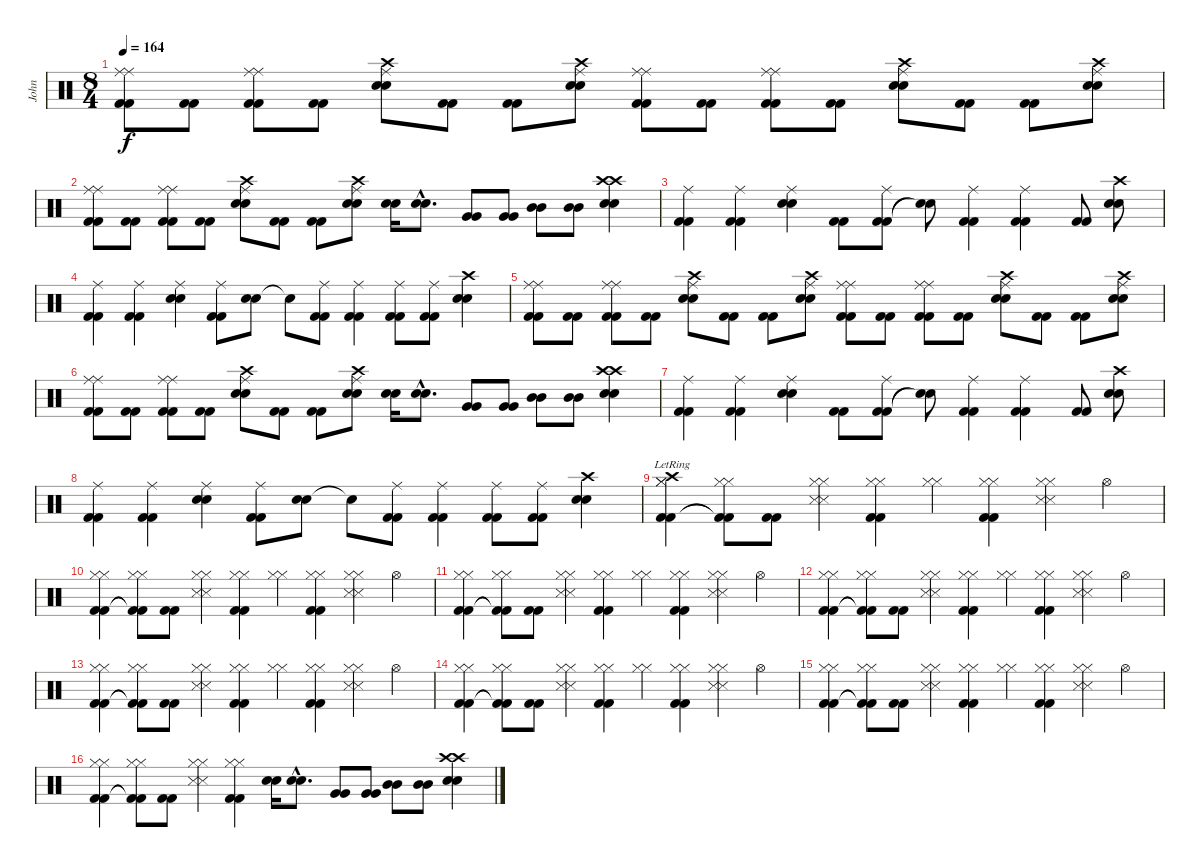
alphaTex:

\track ("John" "John") {instrument percussion}
\staff {score}
\articulation defaults
\ts (8 4)
\tempo 164
\clef neutral
\ks c
("Kick (hit) 2" "Kick (hit) 2" "Ride (middle)" "Ride (middle)").8{dy f} ("Kick (hit) 2" "Kick (hit) 2").8 ("Kick (hit) 2" "Kick (hit) 2" "Ride (middle)" "Ride (middle)").8 ("Kick (hit) 2" "Kick (hit) 2").8 ("Snare (hit) 2" "Snare (hit) 2" "Crash high (hit)" "Ride (middle)").8 ("Kick (hit) 2" "Kick (hit) 2").8 ("Kick (hit) 2" "Kick (hit) 2").8 ("Snare (hit) 2" "Snare (hit) 2" "Crash high (hit)" "Ride (middle)").8 ("Kick (hit) 2" "Kick (hit) 2" "Ride (middle)" "Ride (middle)").8 ("Kick (hit) 2" "Kick (hit) 2").8 ("Kick (hit) 2" "Kick (hit) 2" "Ride (middle)" "Ride (middle)").8 ("Kick (hit) 2" "Kick (hit) 2").8 ("Snare (hit) 2" "Snare (hit) 2" "Crash high (hit)" "Ride (middle)").8 ("Kick (hit) 2" "Kick (hit) 2").8 ("Kick (hit) 2" "Kick (hit) 2").8 ("Snare (hit) 2" "Snare (hit) 2" "Crash high (hit)" "Ride (middle)").8 |
("Kick (hit) 2" "Kick (hit) 2" "Ride (middle)" "Ride (middle)").8 ("Kick (hit) 2" "Kick (hit) 2").8 ("Kick (hit) 2" "Kick (hit) 2" "Ride (middle)" "Ride (middle)").8 ("Kick (hit) 2" "Kick (hit) 2").8 ("Snare (hit) 2" "Snare (hit) 2" "Crash high (hit)" "Ride (middle)").8 ("Kick (hit) 2" "Kick (hit) 2").8 ("Kick (hit) 2" "Kick (hit) 2").8 ("Snare (hit) 2" "Snare (hit) 2" "Crash high (hit)" "Ride (middle)").8 ("Snare (hit) 2" "Snare (hit) 2").16 ("Snare (hit) 2"{hac} "Snare (hit) 2"{hac}).8{d} ("Very Low Tom (hit)" "Very Low Tom (hit)").8 ("Very Low Tom (hit)" "Very Low Tom (hit)").8 ("Mid Tom (hit)" "Mid Tom (hit)").8 ("Mid Tom (hit)" "Mid Tom (hit)").8 ("Snare (hit) 2" "Snare (hit) 2" "Crash high (hit)" "Crash high (hit)").4 |
("Kick (hit) 2" "Kick (hit) 2" "Ride (middle)").4 ("Kick (hit) 2" "Kick (hit) 2" "Ride (middle)").4 ("Snare (hit) 2" "Snare (hit) 2" "Ride (middle)").4 ("Kick (hit) 2" "Kick (hit) 2").8 ("Kick (hit) 2" "Kick (hit) 2" "Ride (middle)").8 ("Snare (hit)"{t} "Snare (hit)"{t}).8 ("Kick (hit) 2" "Kick (hit) 2" "Ride (middle)").4 ("Kick (hit) 2" "Kick (hit) 2" "Ride (middle)").4 ("Kick (hit) 2" "Kick (hit) 2").8 ("Snare (hit) 2" "Snare (hit) 2" "Crash high (hit)").8 |
("Kick (hit) 2" "Kick (hit) 2" "Ride (middle)").4 ("Kick (hit) 2" "Kick (hit) 2" "Ride (middle)").4 ("Snare (hit) 2" "Snare (hit) 2" "Ride (middle)").4 ("Kick (hit) 2" "Kick (hit) 2" "Ride (middle)").8 ("Snare (hit) 2" "Snare (hit) 2").8 "Snare (hit)"{t}.8 ("Kick (hit) 2" "Kick (hit) 2" "Ride (middle)").8 ("Kick (hit) 2" "Kick (hit) 2" "Ride (middle)").4 ("Kick (hit) 2" "Kick (hit) 2" "Ride (middle)").8 ("Kick (hit) 2" "Kick (hit) 2" "Ride (middle)").8 ("Snare (hit) 2" "Snare (hit) 2" "Crash high (hit)").4 |
("Kick (hit) 2" "Kick (hit) 2" "Ride (middle)" "Ride (middle)").8 ("Kick (hit) 2" "Kick (hit) 2").8 ("Kick (hit) 2" "Kick (hit) 2" "Ride (middle)" "Ride (middle)").8 ("Kick (hit) 2" "Kick (hit) 2").8 ("Snare (hit) 2" "Snare (hit) 2" "Crash high (hit)" "Ride (middle)").8 ("Kick (hit) 2" "Kick (hit) 2").8 ("Kick (hit) 2" "Kick (hit) 2").8 ("Snare (hit) 2" "Snare (hit) 2" "Crash high (hit)" "Ride (middle)").8 ("Kick (hit) 2" "Kick (hit) 2" "Ride (middle)" "Ride (middle)").8 ("Kick (hit) 2" "Kick (hit) 2").8 ("Kick (hit) 2" "Kick (hit) 2" "Ride (middle)" "Ride (middle)").8 ("Kick (hit) 2" "Kick (hit) 2").8 ("Snare (hit) 2" "Snare (hit) 2" "Crash high (hit)" "Ride (middle)").8 ("Kick (hit) 2" "Kick (hit) 2").8 ("Kick (hit) 2" "Kick (hit) 2").8 ("Snare (hit) 2" "Snare (hit) 2" "Crash high (hit)" "Ride (middle)").8 |
("Kick (hit) 2" "Kick (hit) 2" "Ride (middle)" "Ride (middle)").8 ("Kick (hit) 2" "Kick (hit) 2").8 ("Kick (hit) 2" "Kick (hit) 2" "Ride (middle)" "Ride (middle)").8 ("Kick (hit) 2" "Kick (hit) 2").8 ("Snare (hit) 2" "Snare (hit) 2" "Crash high (hit)" "Ride (middle)").8 ("Kick (hit) 2" "Kick (hit) 2").8 ("Kick (hit) 2" "Kick (hit) 2").8 ("Snare (hit) 2" "Snare (hit) 2" "Crash high (hit)" "Ride (middle)").8 ("Snare (hit) 2" "Snare (hit) 2").16 ("Snare (hit) 2"{hac} "Snare (hit) 2"{hac}).8{d} ("Very Low Tom (hit)" "Very Low Tom (hit)").8 ("Very Low Tom (hit)" "Very Low Tom (hit)").8 ("Mid Tom (hit)" "Mid Tom (hit)").8 ("Mid Tom (hit)" "Mid Tom (hit)").8 ("Snare (hit) 2" "Snare (hit) 2" "Crash high (hit)" "Crash high (hit)").4 |
("Kick (hit) 2" "Kick (hit) 2" "Ride (middle)").4 ("Kick (hit) 2" "Kick (hit) 2" "Ride (middle)").4 ("Snare (hit) 2" "Snare (hit) 2" "Ride (middle)").4 ("Kick (hit) 2" "Kick (hit) 2").8 ("Kick (hit) 2" "Kick (hit) 2" "Ride (middle)").8 ("Snare (hit)"{t} "Snare (hit)"{t}).8 ("Kick (hit) 2" "Kick (hit) 2" "Ride (middle)").4 ("Kick (hit) 2" "Kick (hit) 2" "Ride (middle)").4 ("Kick (hit) 2" "Kick (hit) 2").8 ("Snare (hit) 2" "Snare (hit) 2" "Crash high (hit)").8 |
("Kick (hit) 2" "Kick (hit) 2" "Ride (middle)").4 ("Kick (hit) 2" "Kick (hit) 2" "Ride (middle)").4 ("Snare (hit) 2" "Snare (hit) 2" "Ride (middle)").4 ("Kick (hit) 2" "Kick (hit) 2" "Ride (middle)").8 ("Snare (hit) 2" "Snare (hit) 2").8 "Snare (hit)"{t}.8 ("Kick (hit) 2" "Kick (hit) 2" "Ride (middle)").8 ("Kick (hit) 2" "Kick (hit) 2" "Ride (middle)").4 ("Kick (hit) 2" "Kick (hit) 2" "Ride (middle)").8 ("Kick (hit) 2" "Kick (hit) 2" "Ride (middle)").8 ("Snare (hit) 2" "Snare (hit) 2" "Crash high (hit)").4 |
("Kick (hit) 2" "Kick (hit) 2" "Hi-Hat (closed)" "Hi-Hat (closed)" "Crash high (hit)"{lr}).4 ("Kick (hit) 2"{t} "Kick (hit) 2"{t} "Hi-Hat (closed)" "Hi-Hat (closed)").8 ("Kick (hit) 2" "Kick (hit) 2").8 ("Snare (side stick) 3" "Snare (side stick) 3" "Hi-Hat (closed)" "Hi-Hat (closed)").4 ("Kick (hit) 2" "Kick (hit) 2" "Hi-Hat (closed)" "Hi-Hat (closed)").4 ("Hi-Hat (closed)" "Hi-Hat (closed)").4 ("Kick (hit) 2" "Kick (hit) 2" "Hi-Hat (closed)" "Hi-Hat (closed)").4 ("Snare (side stick) 3" "Snare (side stick) 3" "Hi-Hat (closed)" "Hi-Hat (closed)").4 "Hi-Hat (open)".4 |
("Kick (hit) 2" "Kick (hit) 2" "Hi-Hat (closed)" "Hi-Hat (closed)").4 ("Kick (hit) 2"{t} "Kick (hit) 2"{t} "Hi-Hat (closed)" "Hi-Hat (closed)").8 ("Kick (hit) 2" "Kick (hit) 2").8 ("Snare (side stick) 3" "Snare (side stick) 3" "Hi-Hat (closed)" "Hi-Hat (closed)").4 ("Kick (hit) 2" "Kick (hit) 2" "Hi-Hat (closed)" "Hi-Hat (closed)").4 ("Hi-Hat (closed)" "Hi-Hat (closed)").4 ("Kick (hit) 2" "Kick (hit) 2" "Hi-Hat (closed)" "Hi-Hat (closed)").4 ("Snare (side stick) 3" "Snare (side stick) 3" "Hi-Hat (closed)" "Hi-Hat (closed)").4 "Hi-Hat (open)".4 |
("Kick (hit) 2" "Kick (hit) 2" "Hi-Hat (closed)" "Hi-Hat (closed)").4 ("Kick (hit) 2"{t} "Kick (hit) 2"{t} "Hi-Hat (closed)" "Hi-Hat (closed)").8 ("Kick (hit) 2" "Kick (hit) 2").8 ("Snare (side stick) 3" "Snare (side stick) 3" "Hi-Hat (closed)" "Hi-Hat (closed)").4 ("Kick (hit) 2" "Kick (hit) 2" "Hi-Hat (closed)" "Hi-Hat (closed)").4 ("Hi-Hat (closed)" "Hi-Hat (closed)").4 ("Kick (hit) 2" "Kick (hit) 2" "Hi-Hat (closed)" "Hi-Hat (closed)").4 ("Snare (side stick) 3" "Snare (side stick) 3" "Hi-Hat (closed)" "Hi-Hat (closed)").4 "Hi-Hat (open)".4 |
("Kick (hit) 2" "Kick (hit) 2" "Hi-Hat (closed)" "Hi-Hat (closed)").4 ("Kick (hit) 2"{t} "Kick (hit) 2"{t} "Hi-Hat (closed)" "Hi-Hat (closed)").8 ("Kick (hit) 2" "Kick (hit) 2").8 ("Snare (side stick) 3" "Snare (side stick) 3" "Hi-Hat (closed)" "Hi-Hat (closed)").4 ("Kick (hit) 2" "Kick (hit) 2" "Hi-Hat (closed)" "Hi-Hat (closed)").4 ("Hi-Hat (closed)" "Hi-Hat (closed)").4 ("Kick (hit) 2" "Kick (hit) 2" "Hi-Hat (closed)" "Hi-Hat (closed)").4 ("Snare (side stick) 3" "Snare (side stick) 3" "Hi-Hat (closed)" "Hi-Hat (closed)").4 "Hi-Hat (open)".4 |
("Kick (hit) 2" "Kick (hit) 2" "Hi-Hat (closed)" "Hi-Hat (closed)").4 ("Kick (hit) 2"{t} "Kick (hit) 2"{t} "Hi-Hat (closed)" "Hi-Hat (closed)").8 ("Kick (hit) 2" "Kick (hit) 2").8 ("Snare (side stick) 3" "Snare (side stick) 3" "Hi-Hat (closed)" "Hi-Hat (closed)").4 ("Kick (hit) 2" "Kick (hit) 2" "Hi-Hat (closed)" "Hi-Hat (closed)").4 ("Hi-Hat (closed)" "Hi-Hat (closed)").4 ("Kick (hit) 2" "Kick (hit) 2" "Hi-Hat (closed)" "Hi-Hat (closed)").4 ("Snare (side stick) 3" "Snare (side stick) 3" "Hi-Hat (closed)" "Hi-Hat (closed)").4 "Hi-Hat (open)".4 |
("Kick (hit) 2" "Kick (hit) 2" "Hi-Hat (closed)" "Hi-Hat (closed)").4 ("Kick (hit) 2"{t} "Kick (hit) 2"{t} "Hi-Hat (closed)" "Hi-Hat (closed)").8 ("Kick (hit) 2" "Kick (hit) 2").8 ("Snare (side stick) 3" "Snare (side stick) 3" "Hi-Hat (closed)" "Hi-Hat (closed)").4 ("Kick (hit) 2" "Kick (hit) 2" "Hi-Hat (closed)" "Hi-Hat (closed)").4 ("Hi-Hat (closed)" "Hi-Hat (closed)").4 ("Kick (hit) 2" "Kick (hit) 2" "Hi-Hat (closed)" "Hi-Hat (closed)").4 ("Snare (side stick) 3" "Snare (side stick) 3" "Hi-Hat (closed)" "Hi-Hat (closed)").4 "Hi-Hat (open)".4 |
("Kick (hit) 2" "Kick (hit) 2" "Hi-Hat (closed)" "Hi-Hat (closed)").4 ("Kick (hit) 2"{t} "Kick (hit) 2"{t} "Hi-Hat (closed)" "Hi-Hat (closed)").8 ("Kick (hit) 2" "Kick (hit) 2").8 ("Snare (side stick) 3" "Snare (side stick) 3" "Hi-Hat (closed)" "Hi-Hat (closed)").4 ("Kick (hit) 2" "Kick (hit) 2" "Hi-Hat (closed)" "Hi-Hat (closed)").4 ("Hi-Hat (closed)" "Hi-Hat (closed)").4 ("Kick (hit) 2" "Kick (hit) 2" "Hi-Hat (closed)" "Hi-Hat (closed)").4 ("Snare (side stick) 3" "Snare (side stick) 3" "Hi-Hat (closed)" "Hi-Hat (closed)").4 "Hi-Hat (open)".4 |
("Kick (hit) 2" "Kick (hit) 2" "Hi-Hat (closed)" "Hi-Hat (closed)").4 ("Kick (hit) 2"{t} "Kick (hit) 2"{t} "Hi-Hat (closed)" "Hi-Hat (closed)").8 ("Kick (hit) 2" "Kick (hit) 2").8 ("Snare (side stick) 3" "Snare (side stick) 3" "Hi-Hat (closed)" "Hi-Hat (closed)").4 ("Kick (hit) 2" "Kick (hit) 2" "Hi-Hat (closed)" "Hi-Hat (closed)").4 ("Snare (hit) 2" "Snare (hit) 2").16 ("Snare (hit) 2"{hac} "Snare (hit) 2"{hac}).8{d} ("Very Low Tom (hit)" "Very Low Tom (hit)").8 ("Very Low Tom (hit)" "Very Low Tom (hit)").8 ("Mid Tom (hit)" "Mid Tom (hit)").8 ("Mid Tom (hit)" "Mid Tom (hit)").8 ("Snare (hit) 2" "Snare (hit) 2" "Crash high (hit)" "Crash high (hit)").4
